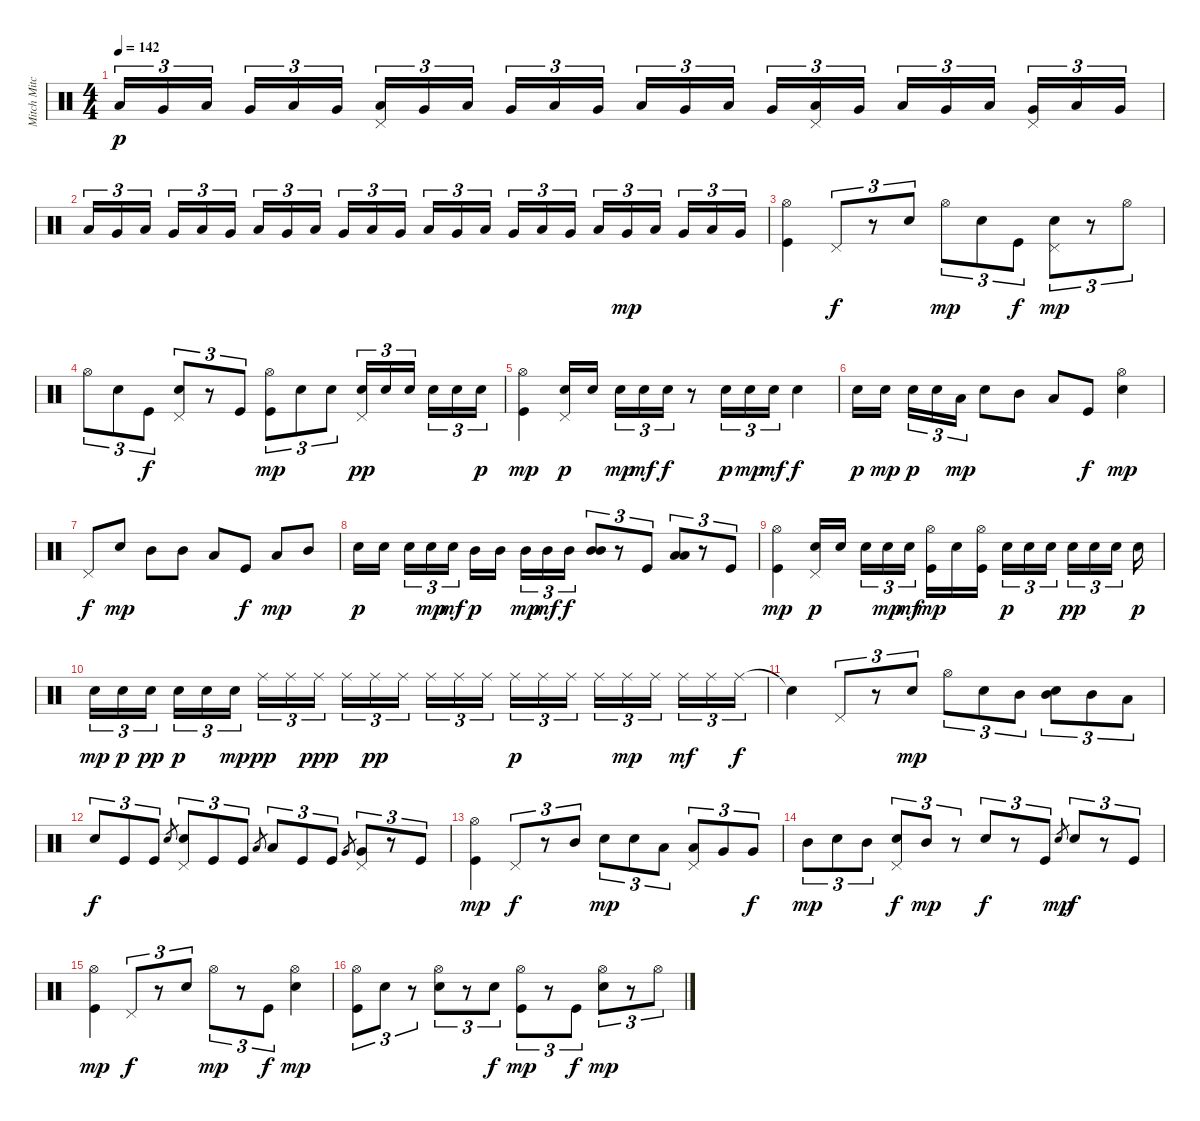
\track ("Mitch Mitchell" "Mitch Mitc") {instrument percussion}
\staff {score}
\articulation defaults
\ts (4 4)
\tempo 142
\clef neutral
\ks c "Low Tom (hit)".16{tu (3 2) dy p} "Very Low Tom (hit)".16{tu (3 2)} "Low Tom (hit)".16{tu (3 2)} "Very Low Tom (hit)".16{tu (3 2)} "Low Tom (hit)".16{tu (3 2)} "Very Low Tom (hit)".16{tu (3 2)}
("Pedal Hi-Hat (hit)" "Low Tom (hit)").16{tu (3 2)} "Very Low Tom (hit)".16{tu (3 2)} "Low Tom (hit)".16{tu (3 2)} "Very Low Tom (hit)".16{tu (3 2)} "Low Tom (hit)".16{tu (3 2)} "Very Low Tom (hit)".16{tu (3 2)} "Low Tom (hit)".16{tu (3 2)} "Very Low Tom (hit)".16{tu (3 2)} "Low Tom (hit)".16{tu (3 2)} "Very Low Tom (hit)".16{tu (3 2)} ("Pedal Hi-Hat (hit)" "Low Tom (hit)").16{tu (3 2)} "Very Low Tom (hit)".16{tu (3 2)} "Low Tom (hit)".16{tu (3 2)} "Very Low Tom (hit)".16{tu (3 2)} "Low Tom (hit)".16{tu (3 2)} ("Pedal Hi-Hat (hit)" "Very Low Tom (hit)").16{tu (3 2)} "Low Tom (hit)".16{tu (3 2)} "Very Low Tom (hit)".16{tu (3 2)} |
"Low Tom (hit)".16{tu (3 2)} "Very Low Tom (hit)".16{tu (3 2)} "Low Tom (hit)".16{tu (3 2)} "Very Low Tom (hit)".16{tu (3 2)} "Low Tom (hit)".16{tu (3 2)} "Very Low Tom (hit)".16{tu (3 2)} "Low Tom (hit)".16{tu (3 2)} "Very Low Tom (hit)".16{tu (3 2)} "Low Tom (hit)".16{tu (3 2)} "Very Low Tom (hit)".16{tu (3 2)} "Low Tom (hit)".16{tu (3 2)} "Very Low Tom (hit)".16{tu (3 2)} "Low Tom (hit)".16{tu (3 2)} "Very Low Tom (hit)".16{tu (3 2)} "Low Tom (hit)".16{tu (3 2)} "Very Low Tom (hit)".16{tu (3 2)} "Low Tom (hit)".16{tu (3 2)} "Very Low Tom (hit)".16{tu (3 2)} "Low Tom (hit)".16{tu (3 2)} "Very Low Tom (hit)".16{tu (3 2) dy mp} "Low Tom (hit)".16{tu (3 2)} "Very Low Tom (hit)".16{tu (3 2)} "Low Tom (hit)".16{tu (3 2)} "Very Low Tom (hit)".16{tu (3 2)} |
("Hi-Hat (open)" "Kick (hit)").4 "Pedal Hi-Hat (hit)".8{tu (3 2) dy f} r.8{tu (3 2)} "Electric Snare (hit)".8{tu (3 2)} "Hi-Hat (open)".8{tu (3 2) dy mp} "Electric Snare (hit)".8{tu (3 2)} "Kick (hit)".8{tu (3 2) dy f} ("Pedal Hi-Hat (hit)" "Electric Snare (hit)").8{tu (3 2) dy mp} r.8{tu (3 2)} "Hi-Hat (open)".8{tu (3 2)} |
"Hi-Hat (open)".8{tu (3 2)} "Electric Snare (hit)".8{tu (3 2)} "Kick (hit)".8{tu (3 2) dy f} ("Pedal Hi-Hat (hit)" "Electric Snare (hit)").8{tu (3 2)} r.8{tu (3 2)} "Kick (hit)".8{tu (3 2)} ("Hi-Hat (open)" "Kick (hit)").8{tu (3 2) dy mp} "Electric Snare (hit)".8{tu (3 2)} "Electric Snare (hit)".8{tu (3 2)} ("Pedal Hi-Hat (hit)" "Electric Snare (hit)").16{tu (3 2) dy pp} "Electric Snare (hit)".16{tu (3 2)} "Electric Snare (hit)".16{tu (3 2)} "Electric Snare (hit)".16{tu (3 2)} "Electric Snare (hit)".16{tu (3 2)} "Electric Snare (hit)".16{tu (3 2) dy p} |
("Hi-Hat (open)" "Kick (hit)").4{dy mp} ("Pedal Hi-Hat (hit)" "Electric Snare (hit)").16{dy p} "Electric Snare (hit)".16 "Electric Snare (hit)".16{tu (3 2) dy mp} "Electric Snare (hit)".16{tu (3 2) dy mf} "Electric Snare (hit)".16{tu (3 2) dy f} r.8 "Electric Snare (hit)".16{tu (3 2) dy p} "Electric Snare (hit)".16{tu (3 2) dy mp} "Electric Snare (hit)".16{tu (3 2) dy mf} "Electric Snare (hit)".4{dy f} |
"Electric Snare (hit)".16{dy p} "Electric Snare (hit)".16{dy mp} "Electric Snare (hit)".16{tu (3 2) dy p} "Electric Snare (hit)".16{tu (3 2)} "Low Tom (hit)".16{tu (3 2) dy mp} "Electric Snare (hit)".8 "Mid Tom (hit)".8 "Low Tom (hit)".8 "Kick (hit)".8{dy f} ("Hi-Hat (open)" "Electric Snare (hit)").4{dy mp} |
"Pedal Hi-Hat (hit)".8{dy f} "Electric Snare (hit)".8{dy mp} "Mid Tom (hit)".8 "Mid Tom (hit)".8 "Low Tom (hit)".8 "Kick (hit)".8{dy f} "Low Tom (hit)".8{dy mp} "Mid Tom (hit)".8 |
"Electric Snare (hit)".16{dy p} "Electric Snare (hit)".16 "Electric Snare (hit)".16{tu (3 2)} "Electric Snare (hit)".16{tu (3 2) dy mp} "Electric Snare (hit)".16{tu (3 2) dy mf} "Mid Tom (hit)".16{dy p} "Mid Tom (hit)".16 "Mid Tom (hit)".16{tu (3 2) dy mp} "Mid Tom (hit)".16{tu (3 2) dy mf} "Mid Tom (hit)".16{tu (3 2) dy f} ("Mid Tom (hit)" "Mid Tom (hit)").8{tu (3 2)} r.8{tu (3 2)} "Kick (hit)".8{tu (3 2)} ("Low Tom (hit)" "Low Tom (hit)").8{tu (3 2)} r.8{tu (3 2)} "Kick (hit)".8{tu (3 2)} |
("Hi-Hat (open)" "Kick (hit)").4{dy mp} ("Pedal Hi-Hat (hit)" "Electric Snare (hit)").16{dy p} "Electric Snare (hit)".16 "Electric Snare (hit)".16{tu (3 2)} "Electric Snare (hit)".16{tu (3 2) dy mp} "Electric Snare (hit)".16{tu (3 2) dy mf} ("Hi-Hat (open)" "Kick (hit)").16{dy mp} "Electric Snare (hit)".16 ("Hi-Hat (open)" "Kick (hit)").16 "Electric Snare (hit)".16{tu (3 2) dy p} "Electric Snare (hit)".16{tu (3 2)} "Electric Snare (hit)".16{tu (3 2)} "Electric Snare (hit)".16{tu (3 2) dy pp} "Electric Snare (hit)".16{tu (3 2)} "Electric Snare (hit)".16{tu (3 2)} "Electric Snare (hit)".16{dy p} |
"Electric Snare (hit)".16{tu (3 2) dy mp} "Electric Snare (hit)".16{tu (3 2) dy p} "Electric Snare (hit)".16{tu (3 2) dy pp} "Electric Snare (hit)".16{tu (3 2) dy p} "Electric Snare (hit)".16{tu (3 2)} "Electric Snare (hit)".16{tu (3 2) dy mp} "Ride (middle)".16{tu (3 2) dy pp} "Ride (middle)".16{tu (3 2)} "Ride (middle)".16{tu (3 2) dy ppp} "Ride (middle)".16{tu (3 2)} "Ride (middle)".16{tu (3 2) dy pp} "Ride (middle)".16{tu (3 2)} "Ride (middle)".16{tu (3 2)} "Ride (middle)".16{tu (3 2)} "Ride (middle)".16{tu (3 2)} "Ride (middle)".16{tu (3 2) dy p} "Ride (middle)".16{tu (3 2)} "Ride (middle)".16{tu (3 2)} "Ride (middle)".16{tu (3 2)} "Ride (middle)".16{tu (3 2) dy mp} "Ride (middle)".16{tu (3 2)} "Ride (middle)".16{tu (3 2) dy mf} "Ride (middle)".16{tu (3 2)} "Ride (middle)".16{tu (3 2) dy f} |
"Snare (hit)"{t}.4 "Pedal Hi-Hat (hit)".8{tu (3 2)} r.8{tu (3 2)} "Electric Snare (hit)".8{tu (3 2) dy mp} "Hi-Hat (open)".8{tu (3 2)} "Electric Snare (hit)".8{tu (3 2)} "Mid Tom (hit)".8{tu (3 2)} ("Mid Tom (hit)" "Electric Snare (hit)").8{tu (3 2)} "Mid Tom (hit)".8{tu (3 2)} "Low Tom (hit)".8{tu (3 2)} |
"Electric Snare (hit)".8{tu (3 2) dy f} "Kick (hit)".8{tu (3 2)} "Kick (hit)".8{tu (3 2)} "Electric Snare (hit)".8{gr} ("Pedal Hi-Hat (hit)" "Electric Snare (hit)").8{tu (3 2)} "Kick (hit)".8{tu (3 2)} "Kick (hit)".8{tu (3 2)} "Low Tom (hit)".8{gr} "Low Tom (hit)".8{tu (3 2)} "Kick (hit)".8{tu (3 2)} "Kick (hit)".8{tu (3 2)} "Very Low Tom (hit)".8{gr} ("Pedal Hi-Hat (hit)" "Very Low Tom (hit)").8{tu (3 2)} r.8{tu (3 2)} "Kick (hit)".8{tu (3 2)} |
("Hi-Hat (open)" "Kick (hit)").4{dy mp} "Pedal Hi-Hat (hit)".8{tu (3 2) dy f} r.8{tu (3 2)} "Mid Tom (hit)".8{tu (3 2)} "Electric Snare (hit)".8{tu (3 2) dy mp} "Electric Snare (hit)".8{tu (3 2)} "Low Tom (hit)".8{tu (3 2)} ("Pedal Hi-Hat (hit)" "Low Tom (hit)").8{tu (3 2)} "Very Low Tom (hit)".8{tu (3 2)} "Very Low Tom (hit)".8{tu (3 2) dy f} |
"Mid Tom (hit)".8{tu (3 2) dy mp} "Electric Snare (hit)".8{tu (3 2)} "Mid Tom (hit)".8{tu (3 2)} ("Pedal Hi-Hat (hit)" "Electric Snare (hit)").8{tu (3 2) dy f} "Mid Tom (hit)".8{tu (3 2) dy mp} r.8{tu (3 2)} "Electric Snare (hit)".8{tu (3 2) dy f} r.8{tu (3 2)} "Kick (hit)".8{tu (3 2)} "Electric Snare (hit)".8{gr dy mp} "Electric Snare (hit)".8{tu (3 2) dy f} r.8{tu (3 2)} "Kick (hit)".8{tu (3 2)} |
("Hi-Hat (open)" "Kick (hit)").4{dy mp} "Pedal Hi-Hat (hit)".8{tu (3 2) dy f} r.8{tu (3 2)} "Electric Snare (hit)".8{tu (3 2)} "Hi-Hat (open)".8{tu (3 2) dy mp} r.8{tu (3 2)} "Kick (hit)".8{tu (3 2) dy f} ("Hi-Hat (open)" "Electric Snare (hit)").4{dy mp} |
("Hi-Hat (open)" "Kick (hit)").8{tu (3 2)} "Electric Snare (hit)".8{tu (3 2)} r.8{tu (3 2)} ("Hi-Hat (open)" "Electric Snare (hit)").8{tu (3 2)} r.8{tu (3 2)} "Electric Snare (hit)".8{tu (3 2) dy f} ("Hi-Hat (open)" "Kick (hit)").8{tu (3 2) dy mp} r.8{tu (3 2)} "Kick (hit)".8{tu (3 2) dy f} ("Hi-Hat (open)" "Electric Snare (hit)").8{tu (3 2) dy mp} r.8{tu (3 2)} "Hi-Hat (open)".8{tu (3 2)}
